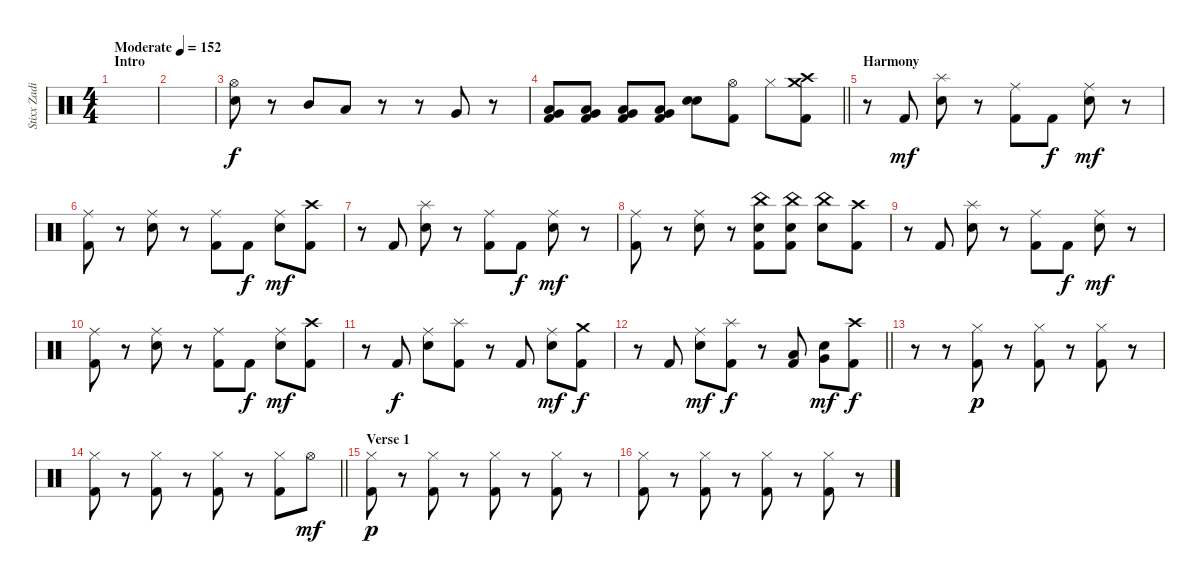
\track ("Stixx Zadinia" "Stixx Zadi") {instrument percussion}
\staff {score}
\articulation defaults
\ts (4 4)
\section ("" "Intro")
\tempo (152 "Moderate")
\clef neutral
\ks c
|
|
("Hi-Hat (open)" "Snare (hit) 2").8 r.8 "Mid Tom (hit)".8 "Low Tom (hit)".8 r.8 r.8 "Very Low Tom (hit)".8 r.8 |
\barLineRight lightlight
("Low Floor Tom (hit)" "Very Low Tom (hit)" "Kick (hit) 2").8 ("Low Floor Tom (hit)" "Very Low Tom (hit)" "Kick (hit) 2").8 ("Low Floor Tom (hit)" "Very Low Tom (hit)" "Kick (hit) 2").8 ("Low Floor Tom (hit)" "Very Low Tom (hit)" "Kick (hit) 2").8 ("Snare (hit) 2" "Snare (hit) 2").8 ("Hi-Hat (open)" "Kick (hit) 2").8 "Hi-Hat (closed)".8 ("Crash high (hit)" "Crash medium (hit)" "Kick (hit) 2").8 |
\section ("" "Harmony")
r.8 "Kick (hit) 2".8{dy mf} ("Splash (hit)" "Snare (hit) 2").8 r.8 ("Ride (middle)" "Kick (hit) 2").8 "Kick (hit) 2".8{dy f} ("Ride (middle)" "Snare (hit) 2").8{dy mf} r.8 |
("Ride (middle)" "Kick (hit) 2").8 r.8 ("Ride (middle)" "Snare (hit) 2").8 r.8 ("Ride (middle)" "Kick (hit) 2").8 "Kick (hit) 2".8{dy f} ("Ride (middle)" "Snare (hit) 2").8{dy mf} ("Crash high (hit)" "Kick (hit) 2").8 |
r.8 "Kick (hit) 2".8 ("Splash (hit)" "Snare (hit) 2").8 r.8 ("Ride (middle)" "Kick (hit) 2").8 "Kick (hit) 2".8{dy f} ("Ride (middle)" "Snare (hit) 2").8{dy mf} r.8 |
("Ride (middle)" "Kick (hit) 2").8 r.8 ("Ride (middle)" "Snare (hit) 2").8 r.8 ("China (hit)" "Snare (hit) 2" "Kick (hit) 2").8 ("China (hit)" "Snare (hit) 2" "Kick (hit) 2").8 ("China (hit)" "Snare (hit) 2").8 ("Crash high (hit)" "Kick (hit) 2").8 |
r.8 "Kick (hit) 2".8 ("Splash (hit)" "Snare (hit) 2").8 r.8 ("Ride (middle)" "Kick (hit) 2").8 "Kick (hit) 2".8{dy f} ("Ride (middle)" "Snare (hit) 2").8{dy mf} r.8 |
("Ride (middle)" "Kick (hit) 2").8 r.8 ("Ride (middle)" "Snare (hit) 2").8 r.8 ("Ride (middle)" "Kick (hit) 2").8 "Kick (hit) 2".8{dy f} ("Ride (middle)" "Snare (hit) 2").8{dy mf} ("Crash high (hit)" "Kick (hit) 2").8 |
r.8 "Kick (hit) 2".8{dy f} ("Ride (middle)" "Snare (hit) 2").8 ("Splash (hit)" "Kick (hit) 2").8 r.8 "Kick (hit) 2".8 ("Ride (middle)" "Snare (hit) 2").8{dy mf} ("Crash medium (hit)" "Kick (hit) 2").8{dy f} |
\barLineRight lightlight
r.8 "Kick (hit) 2".8 ("Ride (middle)" "Snare (hit) 2").8{dy mf} ("Splash (hit)" "Kick (hit) 2").8{dy f} r.8 ("Low Tom (hit)" "Kick (hit) 2").8 ("Very Low Tom (hit)" "Snare (hit) 2").8{dy mf} ("Crash high (hit)" "Kick (hit) 2").8{dy f} |
r.8 r.8 ("Hi-Hat (closed)" "Kick (hit) 2").8{dy p} r.8 ("Hi-Hat (closed)" "Kick (hit) 2").8 r.8 ("Hi-Hat (closed)" "Kick (hit) 2").8 r.8 |
\barLineRight lightlight
("Hi-Hat (closed)" "Kick (hit) 2").8 r.8 ("Hi-Hat (closed)" "Kick (hit) 2").8 r.8 ("Hi-Hat (closed)" "Kick (hit) 2").8 r.8 ("Hi-Hat (closed)" "Kick (hit) 2").8 "Hi-Hat (open)".8{dy mf} |
\section ("" "Verse 1")
("Hi-Hat (closed)" "Kick (hit) 2").8{dy p} r.8 ("Hi-Hat (closed)" "Kick (hit) 2").8 r.8 ("Hi-Hat (closed)" "Kick (hit) 2").8 r.8 ("Hi-Hat (closed)" "Kick (hit) 2").8 r.8 |
("Hi-Hat (closed)" "Kick (hit) 2").8 r.8 ("Hi-Hat (closed)" "Kick (hit) 2").8 r.8 ("Hi-Hat (closed)" "Kick (hit) 2").8 r.8 ("Hi-Hat (closed)" "Kick (hit) 2").8 r.8
